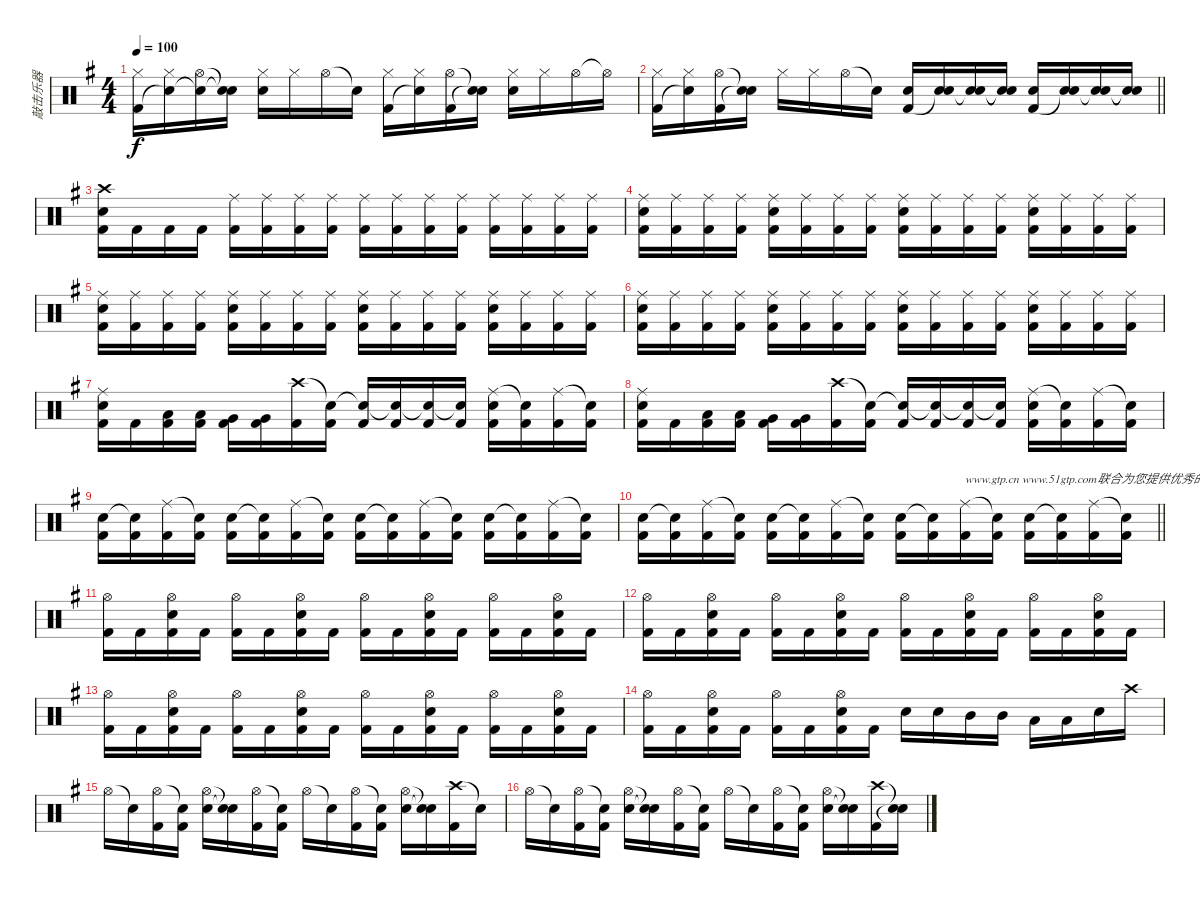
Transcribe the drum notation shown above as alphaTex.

\track ("敲击乐器" "敲击乐器") {instrument percussion}
\staff {score}
\articulation defaults
\ts (4 4)
\tempo 100
\clef neutral
\ks g
("Hi-Hat (closed)" "Kick (hit) 2").16{dy f} ("Hi-Hat (closed)" "Snare (hit)"{t}).16 ("Hi-Hat (open)" "Snare (hit)"{t}).16 ("Snare (hit)"{t} "Snare (hit)"{t}).16 ("Hi-Hat (closed)" "Snare (hit) 2").16 "Hi-Hat (closed)".16 "Hi-Hat (open)".16 "Snare (hit)"{t}.16 ("Hi-Hat (closed)" "Kick (hit) 2").16 ("Hi-Hat (closed)" "Snare (hit)"{t}).16 ("Hi-Hat (open)" "Kick (hit) 2").16 ("Snare (hit)"{t} "Snare (hit)"{t}).16 ("Hi-Hat (closed)" "Snare (hit) 2").16 "Hi-Hat (closed)".16 "Hi-Hat (open)".16 "Hi-Hat (open)"{t}.16 |
\barLineRight lightlight
("Hi-Hat (closed)" "Kick (hit) 2").16 ("Hi-Hat (closed)" "Snare (hit)"{t}).16 ("Hi-Hat (open)" "Kick (hit) 2").16 ("Snare (hit)"{t} "Snare (hit)"{t}).16 "Hi-Hat (closed)".16 "Hi-Hat (closed)".16 "Hi-Hat (open)".16 "Snare (hit)"{t}.16 ("Snare (hit) 2" "Kick (hit) 2").16 ("Snare (hit) 2" "Snare (hit)"{t}).16 ("Snare (hit) 2" "Snare (hit)"{t}).16 ("Snare (hit)"{t} "Snare (hit)"{t}).16 ("Snare (hit) 2" "Kick (hit) 2").16 ("Snare (hit) 2" "Snare (hit)"{t}).16 ("Snare (hit) 2" "Snare (hit)"{t}).16 ("Snare (hit)"{t} "Snare (hit)"{t}).16 |
\ks eminor
("Crash high (hit)" "Snare (hit) 2" "Kick (hit) 2").16 "Kick (hit) 2".16 "Kick (hit) 2".16 "Kick (hit) 2".16 ("Ride (middle)" "Kick (hit) 2").16 ("Ride (middle)" "Kick (hit) 2").16 ("Ride (middle)" "Kick (hit) 2").16 ("Ride (middle)" "Kick (hit) 2").16 ("Ride (middle)" "Kick (hit) 2").16 ("Ride (middle)" "Kick (hit) 2").16 ("Ride (middle)" "Kick (hit) 2").16 ("Ride (middle)" "Kick (hit) 2").16 ("Ride (middle)" "Kick (hit) 2").16 ("Ride (middle)" "Kick (hit) 2").16 ("Ride (middle)" "Kick (hit) 2").16 ("Ride (middle)" "Kick (hit) 2").16 |
("Ride (middle)" "Snare (hit) 2" "Kick (hit) 2").16 ("Ride (middle)" "Kick (hit) 2").16 ("Ride (middle)" "Kick (hit) 2").16 ("Ride (middle)" "Kick (hit) 2").16 ("Ride (middle)" "Snare (hit) 2" "Kick (hit) 2").16 ("Ride (middle)" "Kick (hit) 2").16 ("Ride (middle)" "Kick (hit) 2").16 ("Ride (middle)" "Kick (hit) 2").16 ("Ride (middle)" "Snare (hit) 2" "Kick (hit) 2").16 ("Ride (middle)" "Kick (hit) 2").16 ("Ride (middle)" "Kick (hit) 2").16 ("Ride (middle)" "Kick (hit) 2").16 ("Ride (middle)" "Snare (hit) 2" "Kick (hit) 2").16 ("Ride (middle)" "Kick (hit) 2").16 ("Ride (middle)" "Kick (hit) 2").16 ("Ride (middle)" "Kick (hit) 2").16 |
("Ride (middle)" "Snare (hit) 2" "Kick (hit) 2").16 ("Ride (middle)" "Kick (hit) 2").16 ("Ride (middle)" "Kick (hit) 2").16 ("Ride (middle)" "Kick (hit) 2").16 ("Ride (middle)" "Snare (hit) 2" "Kick (hit) 2").16 ("Ride (middle)" "Kick (hit) 2").16 ("Ride (middle)" "Kick (hit) 2").16 ("Ride (middle)" "Kick (hit) 2").16 ("Ride (middle)" "Snare (hit) 2" "Kick (hit) 2").16 ("Ride (middle)" "Kick (hit) 2").16 ("Ride (middle)" "Kick (hit) 2").16 ("Ride (middle)" "Kick (hit) 2").16 ("Ride (middle)" "Snare (hit) 2" "Kick (hit) 2").16 ("Ride (middle)" "Kick (hit) 2").16 ("Ride (middle)" "Kick (hit) 2").16 ("Ride (middle)" "Kick (hit) 2").16 |
("Ride (middle)" "Snare (hit) 2" "Kick (hit) 2").16 ("Ride (middle)" "Kick (hit) 2").16 ("Ride (middle)" "Kick (hit) 2").16 ("Ride (middle)" "Kick (hit) 2").16 ("Ride (middle)" "Snare (hit) 2" "Kick (hit) 2").16 ("Ride (middle)" "Kick (hit) 2").16 ("Ride (middle)" "Kick (hit) 2").16 ("Ride (middle)" "Kick (hit) 2").16 ("Ride (middle)" "Snare (hit) 2" "Kick (hit) 2").16 ("Ride (middle)" "Kick (hit) 2").16 ("Ride (middle)" "Kick (hit) 2").16 ("Ride (middle)" "Kick (hit) 2").16 ("Ride (middle)" "Snare (hit) 2" "Kick (hit) 2").16 ("Ride (middle)" "Kick (hit) 2").16 ("Ride (middle)" "Kick (hit) 2").16 ("Ride (middle)" "Kick (hit) 2").16 |
("Ride (middle)" "Snare (hit) 2" "Kick (hit) 2").16 "Kick (hit) 2".16 ("Low Tom (hit)" "Kick (hit) 2").16 ("Low Tom (hit)" "Kick (hit) 2").16 ("Very Low Tom (hit)" "Kick (hit) 2").16 ("Very Low Tom (hit)" "Kick (hit) 2").16 ("Crash high (hit)" "Kick (hit) 2").16 ("Snare (hit)"{t} "Kick (hit) 2").16 ("Snare (hit)"{t} "Kick (hit) 2").16 ("Snare (hit)"{t} "Kick (hit) 2").16 ("Snare (hit)"{t} "Kick (hit) 2").16 ("Snare (hit)"{t} "Kick (hit) 2").16 ("Ride (middle)" "Snare (hit) 2" "Kick (hit) 2").16 ("Snare (hit)"{t} "Kick (hit) 2").16 ("Ride (middle)" "Kick (hit) 2").16 ("Snare (hit)"{t} "Kick (hit) 2").16 |
("Ride (middle)" "Snare (hit) 2" "Kick (hit) 2").16 "Kick (hit) 2".16 ("Low Tom (hit)" "Kick (hit) 2").16 ("Low Tom (hit)" "Kick (hit) 2").16 ("Very Low Tom (hit)" "Kick (hit) 2").16 ("Very Low Tom (hit)" "Kick (hit) 2").16 ("Crash high (hit)" "Kick (hit) 2").16 ("Snare (hit)"{t} "Kick (hit) 2").16 ("Snare (hit)"{t} "Kick (hit) 2").16 ("Snare (hit)"{t} "Kick (hit) 2").16 ("Snare (hit)"{t} "Kick (hit) 2").16 ("Snare (hit)"{t} "Kick (hit) 2").16 ("Ride (middle)" "Snare (hit) 2" "Kick (hit) 2").16 ("Snare (hit)"{t} "Kick (hit) 2").16 ("Ride (middle)" "Kick (hit) 2").16 ("Snare (hit)"{t} "Kick (hit) 2").16 |
("Snare (hit) 2" "Kick (hit) 2").16 ("Snare (hit)"{t} "Kick (hit) 2").16 ("Ride (middle)" "Kick (hit) 2").16 ("Snare (hit)"{t} "Kick (hit) 2").16 ("Snare (hit) 2" "Kick (hit) 2").16 ("Snare (hit)"{t} "Kick (hit) 2").16 ("Ride (middle)" "Kick (hit) 2").16 ("Snare (hit)"{t} "Kick (hit) 2").16 ("Snare (hit) 2" "Kick (hit) 2").16 ("Snare (hit)"{t} "Kick (hit) 2").16 ("Ride (middle)" "Kick (hit) 2").16 ("Snare (hit)"{t} "Kick (hit) 2").16 ("Snare (hit) 2" "Kick (hit) 2").16 ("Snare (hit)"{t} "Kick (hit) 2").16 ("Ride (middle)" "Kick (hit) 2").16 ("Snare (hit)"{t} "Kick (hit) 2").16 |
\barLineRight lightlight
("Snare (hit) 2" "Kick (hit) 2").16 ("Snare (hit)"{t} "Kick (hit) 2").16 ("Ride (middle)" "Kick (hit) 2").16 ("Snare (hit)"{t} "Kick (hit) 2").16 ("Snare (hit) 2" "Kick (hit) 2").16 ("Snare (hit)"{t} "Kick (hit) 2").16 ("Ride (middle)" "Kick (hit) 2").16 ("Snare (hit)"{t} "Kick (hit) 2").16 ("Snare (hit) 2" "Kick (hit) 2").16 ("Snare (hit)"{t} "Kick (hit) 2").16 ("Ride (middle)" "Kick (hit) 2").16{txt "www.gtp.cn www.51gtp.com联合为您提供优秀的GTP!"} ("Snare (hit)"{t} "Kick (hit) 2").16 ("Snare (hit) 2" "Kick (hit) 2").16 ("Snare (hit)"{t} "Kick (hit) 2").16 ("Ride (middle)" "Kick (hit) 2").16 ("Snare (hit)"{t} "Kick (hit) 2").16 |
("Hi-Hat (open)" "Kick (hit) 2").16 "Kick (hit) 2".16 ("Hi-Hat (open)" "Snare (hit) 2" "Kick (hit) 2").16 "Kick (hit) 2".16 ("Hi-Hat (open)" "Kick (hit) 2").16 "Kick (hit) 2".16 ("Hi-Hat (open)" "Snare (hit) 2" "Kick (hit) 2").16 "Kick (hit) 2".16 ("Hi-Hat (open)" "Kick (hit) 2").16 "Kick (hit) 2".16 ("Hi-Hat (open)" "Snare (hit) 2" "Kick (hit) 2").16 "Kick (hit) 2".16 ("Hi-Hat (open)" "Kick (hit) 2").16 "Kick (hit) 2".16 ("Hi-Hat (open)" "Snare (hit) 2" "Kick (hit) 2").16 "Kick (hit) 2".16 |
("Hi-Hat (open)" "Kick (hit) 2").16 "Kick (hit) 2".16 ("Hi-Hat (open)" "Snare (hit) 2" "Kick (hit) 2").16 "Kick (hit) 2".16 ("Hi-Hat (open)" "Kick (hit) 2").16 "Kick (hit) 2".16 ("Hi-Hat (open)" "Snare (hit) 2" "Kick (hit) 2").16 "Kick (hit) 2".16 ("Hi-Hat (open)" "Kick (hit) 2").16 "Kick (hit) 2".16 ("Hi-Hat (open)" "Snare (hit) 2" "Kick (hit) 2").16 "Kick (hit) 2".16 ("Hi-Hat (open)" "Kick (hit) 2").16 "Kick (hit) 2".16 ("Hi-Hat (open)" "Snare (hit) 2" "Kick (hit) 2").16 "Kick (hit) 2".16 |
("Hi-Hat (open)" "Kick (hit) 2").16 "Kick (hit) 2".16 ("Hi-Hat (open)" "Snare (hit) 2" "Kick (hit) 2").16 "Kick (hit) 2".16 ("Hi-Hat (open)" "Kick (hit) 2").16 "Kick (hit) 2".16 ("Hi-Hat (open)" "Snare (hit) 2" "Kick (hit) 2").16 "Kick (hit) 2".16 ("Hi-Hat (open)" "Kick (hit) 2").16 "Kick (hit) 2".16 ("Hi-Hat (open)" "Snare (hit) 2" "Kick (hit) 2").16 "Kick (hit) 2".16 ("Hi-Hat (open)" "Kick (hit) 2").16 "Kick (hit) 2".16 ("Hi-Hat (open)" "Snare (hit) 2" "Kick (hit) 2").16 "Kick (hit) 2".16 |
("Hi-Hat (open)" "Kick (hit) 2").16 "Kick (hit) 2".16 ("Hi-Hat (open)" "Snare (hit) 2" "Kick (hit) 2").16 "Kick (hit) 2".16 ("Hi-Hat (open)" "Kick (hit) 2").16 "Kick (hit) 2".16 ("Hi-Hat (open)" "Snare (hit) 2" "Kick (hit) 2").16 "Kick (hit) 2".16 "Snare (hit) 2".16 "Snare (hit) 2".16 "Mid Tom (hit)".16 "Mid Tom (hit)".16 "Low Tom (hit)".16 "Low Tom (hit)".16 "Snare (hit) 2".16 "Crash high (hit)".16 |
"Hi-Hat (open)".16 "Snare (hit)"{t}.16 ("Hi-Hat (open)" "Kick (hit) 2").16 ("Snare (hit)"{t} "Kick (hit) 2").16 ("Hi-Hat (open)" "Snare (hit) 2").16 ("Snare (hit)"{t} "Snare (hit)"{t}).16 ("Hi-Hat (open)" "Kick (hit) 2").16 ("Snare (hit)"{t} "Kick (hit) 2").16 "Hi-Hat (open)".16 "Snare (hit)"{t}.16 ("Hi-Hat (open)" "Kick (hit) 2").16 ("Snare (hit)"{t} "Kick (hit) 2").16 ("Hi-Hat (open)" "Snare (hit) 2").16 ("Snare (hit)"{t} "Snare (hit)"{t}).16 ("Crash high (hit)" "Kick (hit) 2").16 "Snare (hit)"{t}.16 |
"Hi-Hat (open)".16 "Snare (hit)"{t}.16 ("Hi-Hat (open)" "Kick (hit) 2").16 ("Snare (hit)"{t} "Kick (hit) 2").16 ("Hi-Hat (open)" "Snare (hit) 2").16 ("Snare (hit)"{t} "Snare (hit)"{t}).16 ("Hi-Hat (open)" "Kick (hit) 2").16 ("Snare (hit)"{t} "Kick (hit) 2").16 "Hi-Hat (open)".16 "Snare (hit)"{t}.16 ("Hi-Hat (open)" "Kick (hit) 2").16 ("Snare (hit)"{t} "Kick (hit) 2").16 ("Hi-Hat (open)" "Snare (hit) 2").16 ("Snare (hit)"{t} "Snare (hit)"{t}).16 ("Crash high (hit)" "Kick (hit) 2").16 ("Snare (hit)"{t} "Snare (hit)"{t}).16
